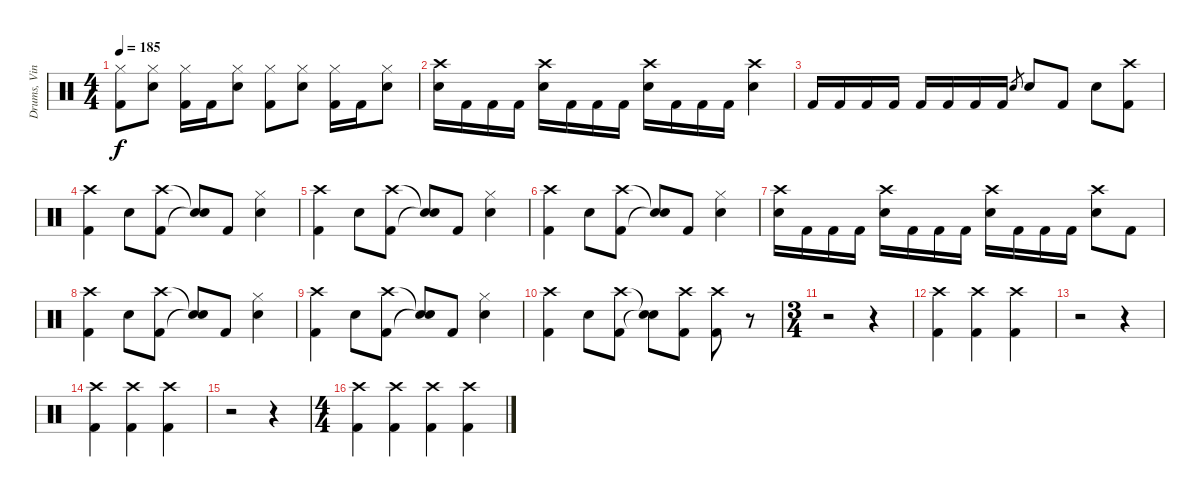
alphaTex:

\track ("Drums, Vinnie" "Drums, Vin") {instrument percussion}
\staff {score}
\articulation defaults
\ts (4 4)
\tempo 185
\clef neutral
\ks c
("Hi-Hat (closed)" "Kick (hit) 2").8{dy f} ("Hi-Hat (closed)" "Electric Snare (hit)").8 ("Hi-Hat (closed)" "Kick (hit) 2").16 "Kick (hit) 2".16 ("Hi-Hat (closed)" "Electric Snare (hit)").8 ("Hi-Hat (closed)" "Kick (hit) 2").8 ("Hi-Hat (closed)" "Electric Snare (hit)").8 ("Hi-Hat (closed)" "Kick (hit) 2").16 "Kick (hit) 2".16 ("Hi-Hat (closed)" "Electric Snare (hit)").8 |
("Crash high (hit)" "Electric Snare (hit)").16 "Kick (hit) 2".16 "Kick (hit) 2".16 "Kick (hit) 2".16 ("Crash high (hit)" "Electric Snare (hit)").16 "Kick (hit) 2".16 "Kick (hit) 2".16 "Kick (hit) 2".16 ("Crash high (hit)" "Electric Snare (hit)").16 "Kick (hit) 2".16 "Kick (hit) 2".16 "Kick (hit) 2".16 ("Crash high (hit)" "Electric Snare (hit)").4 |
"Kick (hit) 2".16 "Kick (hit) 2".16 "Kick (hit) 2".16 "Kick (hit) 2".16 "Kick (hit) 2".16 "Kick (hit) 2".16 "Kick (hit) 2".16 "Kick (hit) 2".16 "Electric Snare (hit)".8{gr} "Electric Snare (hit)".8 "Kick (hit) 2".8 "Electric Snare (hit)".8 ("Crash high (hit)" "Kick (hit) 2").8 |
("Crash high (hit)" "Kick (hit) 2").4 "Electric Snare (hit)".8 ("Crash high (hit)" "Kick (hit) 2").8 ("Snare (hit)"{t} "Snare (hit)"{t}).8 "Kick (hit) 2".8 ("Hi-Hat (closed)" "Electric Snare (hit)").4 |
("Crash high (hit)" "Kick (hit) 2").4 "Electric Snare (hit)".8 ("Crash high (hit)" "Kick (hit) 2").8 ("Snare (hit)"{t} "Snare (hit)"{t}).8 "Kick (hit) 2".8 ("Hi-Hat (closed)" "Electric Snare (hit)").4 |
("Crash high (hit)" "Kick (hit) 2").4 "Electric Snare (hit)".8 ("Crash high (hit)" "Kick (hit) 2").8 ("Snare (hit)"{t} "Snare (hit)"{t}).8 "Kick (hit) 2".8 ("Hi-Hat (closed)" "Electric Snare (hit)").4 |
("Crash high (hit)" "Electric Snare (hit)").16 "Kick (hit) 2".16 "Kick (hit) 2".16 "Kick (hit) 2".16 ("Crash high (hit)" "Electric Snare (hit)").16 "Kick (hit) 2".16 "Kick (hit) 2".16 "Kick (hit) 2".16 ("Crash high (hit)" "Electric Snare (hit)").16 "Kick (hit) 2".16 "Kick (hit) 2".16 "Kick (hit) 2".16 ("Crash high (hit)" "Electric Snare (hit)").8 "Kick (hit) 2".8 |
("Crash high (hit)" "Kick (hit) 2").4 "Electric Snare (hit)".8 ("Crash high (hit)" "Kick (hit) 2").8 ("Snare (hit)"{t} "Snare (hit)"{t}).8 "Kick (hit) 2".8 ("Hi-Hat (closed)" "Electric Snare (hit)").4 |
("Crash high (hit)" "Kick (hit) 2").4 "Electric Snare (hit)".8 ("Crash high (hit)" "Kick (hit) 2").8 ("Snare (hit)"{t} "Snare (hit)"{t}).8 "Kick (hit) 2".8 ("Hi-Hat (closed)" "Electric Snare (hit)").4 |
("Crash high (hit)" "Kick (hit) 2").4 "Electric Snare (hit)".8 ("Crash high (hit)" "Kick (hit) 2").8 ("Snare (hit)"{t} "Snare (hit)"{t}).8 ("Crash high (hit)" "Kick (hit) 2").8 ("Crash high (hit)" "Kick (hit) 2").8 r.8 |
\ts (3 4)
r.2 r.4 |
("Crash high (hit)" "Kick (hit) 2").4 ("Crash high (hit)" "Kick (hit) 2").4 ("Crash high (hit)" "Kick (hit) 2").4 |
r.2 r.4 |
("Crash high (hit)" "Kick (hit) 2").4 ("Crash high (hit)" "Kick (hit) 2").4 ("Crash high (hit)" "Kick (hit) 2").4 |
r.2 r.4 |
\ts (4 4)
("Crash high (hit)" "Kick (hit) 2").4 ("Crash high (hit)" "Kick (hit) 2").4 ("Crash high (hit)" "Kick (hit) 2").4 ("Crash high (hit)" "Kick (hit) 2").4
